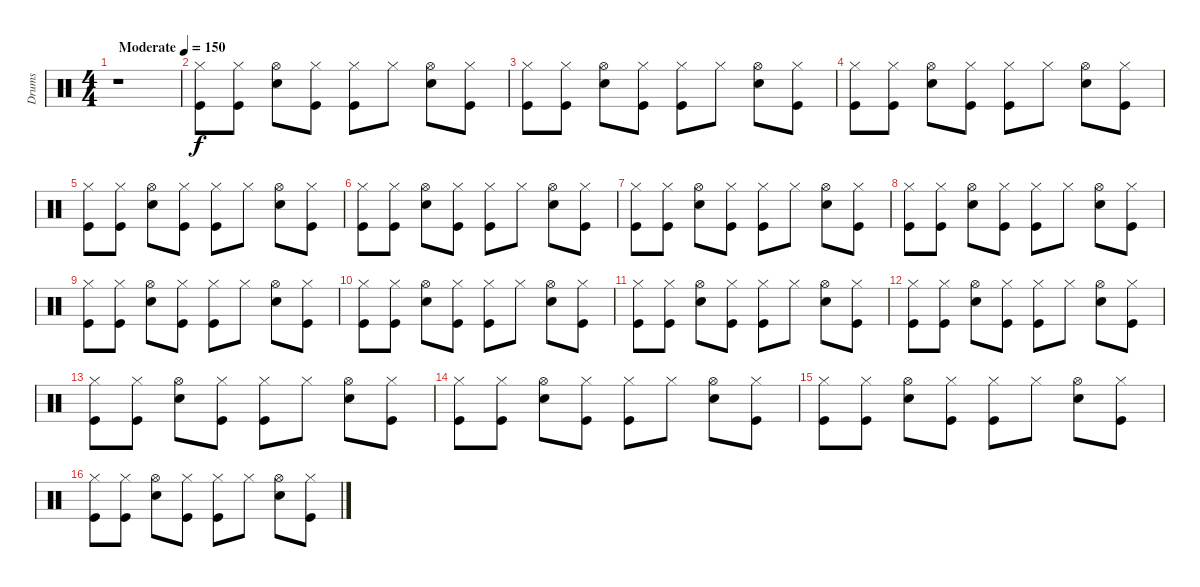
\track ("Drums" "Drums") {instrument percussion}
\staff {score}
\articulation defaults
\ts (4 4)
\tempo (150 "Moderate")
\clef neutral
\ks c
r.1{dy f} |
("Hi-Hat (closed)" "Kick (hit)").8 ("Hi-Hat (closed)" "Kick (hit)").8 ("Hi-Hat (open)" "Snare (hit) 2").8 ("Hi-Hat (closed)" "Kick (hit)").8 ("Hi-Hat (closed)" "Kick (hit)").8 "Hi-Hat (closed)".8 ("Hi-Hat (open)" "Snare (hit) 2").8 ("Hi-Hat (closed)" "Kick (hit)").8 |
("Hi-Hat (closed)" "Kick (hit)").8 ("Hi-Hat (closed)" "Kick (hit)").8 ("Hi-Hat (open)" "Snare (hit) 2").8 ("Hi-Hat (closed)" "Kick (hit)").8 ("Hi-Hat (closed)" "Kick (hit)").8 "Hi-Hat (closed)".8 ("Hi-Hat (open)" "Snare (hit) 2").8 ("Hi-Hat (closed)" "Kick (hit)").8 |
("Hi-Hat (closed)" "Kick (hit)").8 ("Hi-Hat (closed)" "Kick (hit)").8 ("Hi-Hat (open)" "Snare (hit) 2").8 ("Hi-Hat (closed)" "Kick (hit)").8 ("Hi-Hat (closed)" "Kick (hit)").8 "Hi-Hat (closed)".8 ("Hi-Hat (open)" "Snare (hit) 2").8 ("Hi-Hat (closed)" "Kick (hit)").8 |
("Hi-Hat (closed)" "Kick (hit)").8 ("Hi-Hat (closed)" "Kick (hit)").8 ("Hi-Hat (open)" "Snare (hit) 2").8 ("Hi-Hat (closed)" "Kick (hit)").8 ("Hi-Hat (closed)" "Kick (hit)").8 "Hi-Hat (closed)".8 ("Hi-Hat (open)" "Snare (hit) 2").8 ("Hi-Hat (closed)" "Kick (hit)").8 |
("Hi-Hat (closed)" "Kick (hit)").8 ("Hi-Hat (closed)" "Kick (hit)").8 ("Hi-Hat (open)" "Snare (hit) 2").8 ("Hi-Hat (closed)" "Kick (hit)").8 ("Hi-Hat (closed)" "Kick (hit)").8 "Hi-Hat (closed)".8 ("Hi-Hat (open)" "Snare (hit) 2").8 ("Hi-Hat (closed)" "Kick (hit)").8 |
("Hi-Hat (closed)" "Kick (hit)").8 ("Hi-Hat (closed)" "Kick (hit)").8 ("Hi-Hat (open)" "Snare (hit) 2").8 ("Hi-Hat (closed)" "Kick (hit)").8 ("Hi-Hat (closed)" "Kick (hit)").8 "Hi-Hat (closed)".8 ("Hi-Hat (open)" "Snare (hit) 2").8 ("Hi-Hat (closed)" "Kick (hit)").8 |
("Hi-Hat (closed)" "Kick (hit)").8 ("Hi-Hat (closed)" "Kick (hit)").8 ("Hi-Hat (open)" "Snare (hit) 2").8 ("Hi-Hat (closed)" "Kick (hit)").8 ("Hi-Hat (closed)" "Kick (hit)").8 "Hi-Hat (closed)".8 ("Hi-Hat (open)" "Snare (hit) 2").8 ("Hi-Hat (closed)" "Kick (hit)").8 |
("Hi-Hat (closed)" "Kick (hit)").8 ("Hi-Hat (closed)" "Kick (hit)").8 ("Hi-Hat (open)" "Snare (hit) 2").8 ("Hi-Hat (closed)" "Kick (hit)").8 ("Hi-Hat (closed)" "Kick (hit)").8 "Hi-Hat (closed)".8 ("Hi-Hat (open)" "Snare (hit) 2").8 ("Hi-Hat (closed)" "Kick (hit)").8 |
("Hi-Hat (closed)" "Kick (hit)").8 ("Hi-Hat (closed)" "Kick (hit)").8 ("Hi-Hat (open)" "Snare (hit) 2").8 ("Hi-Hat (closed)" "Kick (hit)").8 ("Hi-Hat (closed)" "Kick (hit)").8 "Hi-Hat (closed)".8 ("Hi-Hat (open)" "Snare (hit) 2").8 ("Hi-Hat (closed)" "Kick (hit)").8 |
("Hi-Hat (closed)" "Kick (hit)").8 ("Hi-Hat (closed)" "Kick (hit)").8 ("Hi-Hat (open)" "Snare (hit) 2").8 ("Hi-Hat (closed)" "Kick (hit)").8 ("Hi-Hat (closed)" "Kick (hit)").8 "Hi-Hat (closed)".8 ("Hi-Hat (open)" "Snare (hit) 2").8 ("Hi-Hat (closed)" "Kick (hit)").8 |
("Hi-Hat (closed)" "Kick (hit)").8 ("Hi-Hat (closed)" "Kick (hit)").8 ("Hi-Hat (open)" "Snare (hit) 2").8 ("Hi-Hat (closed)" "Kick (hit)").8 ("Hi-Hat (closed)" "Kick (hit)").8 "Hi-Hat (closed)".8 ("Hi-Hat (open)" "Snare (hit) 2").8 ("Hi-Hat (closed)" "Kick (hit)").8 |
("Hi-Hat (closed)" "Kick (hit)").8 ("Hi-Hat (closed)" "Kick (hit)").8 ("Hi-Hat (open)" "Snare (hit) 2").8 ("Hi-Hat (closed)" "Kick (hit)").8 ("Hi-Hat (closed)" "Kick (hit)").8 "Hi-Hat (closed)".8 ("Hi-Hat (open)" "Snare (hit) 2").8 ("Hi-Hat (closed)" "Kick (hit)").8 |
("Hi-Hat (closed)" "Kick (hit)").8 ("Hi-Hat (closed)" "Kick (hit)").8 ("Hi-Hat (open)" "Snare (hit) 2").8 ("Hi-Hat (closed)" "Kick (hit)").8 ("Hi-Hat (closed)" "Kick (hit)").8 "Hi-Hat (closed)".8 ("Hi-Hat (open)" "Snare (hit) 2").8 ("Hi-Hat (closed)" "Kick (hit)").8 |
("Hi-Hat (closed)" "Kick (hit)").8 ("Hi-Hat (closed)" "Kick (hit)").8 ("Hi-Hat (open)" "Snare (hit) 2").8 ("Hi-Hat (closed)" "Kick (hit)").8 ("Hi-Hat (closed)" "Kick (hit)").8 "Hi-Hat (closed)".8 ("Hi-Hat (open)" "Snare (hit) 2").8 ("Hi-Hat (closed)" "Kick (hit)").8 |
("Hi-Hat (closed)" "Kick (hit)").8 ("Hi-Hat (closed)" "Kick (hit)").8 ("Hi-Hat (open)" "Snare (hit) 2").8 ("Hi-Hat (closed)" "Kick (hit)").8 ("Hi-Hat (closed)" "Kick (hit)").8 "Hi-Hat (closed)".8 ("Hi-Hat (open)" "Snare (hit) 2").8 ("Hi-Hat (closed)" "Kick (hit)").8
